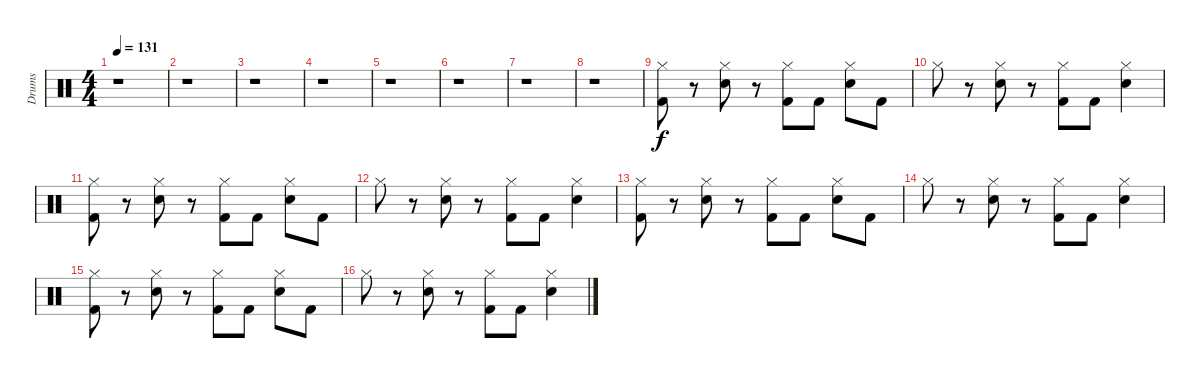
\track ("Drums" "Drums") {instrument percussion}
\staff {score}
\articulation defaults
\ts (4 4)
\tempo 131
\clef neutral
\ks c
r.1{dy f} |
r.1 |
r.1 |
r.1 |
r.1 |
r.1 |
r.1 |
r.1 |
("Hi-Hat (closed)" "Kick (hit) 2").8 r.8 ("Hi-Hat (closed)" "Snare (hit) 2").8 r.8 ("Hi-Hat (closed)" "Kick (hit) 2").8 "Kick (hit) 2".8 ("Hi-Hat (closed)" "Snare (hit) 2").8 "Kick (hit) 2".8 |
"Hi-Hat (closed)".8 r.8 ("Hi-Hat (closed)" "Snare (hit) 2").8 r.8 ("Hi-Hat (closed)" "Kick (hit) 2").8 "Kick (hit) 2".8 ("Hi-Hat (closed)" "Snare (hit) 2").4 |
("Hi-Hat (closed)" "Kick (hit) 2").8 r.8 ("Hi-Hat (closed)" "Snare (hit) 2").8 r.8 ("Hi-Hat (closed)" "Kick (hit) 2").8 "Kick (hit) 2".8 ("Hi-Hat (closed)" "Snare (hit) 2").8 "Kick (hit) 2".8 |
"Hi-Hat (closed)".8 r.8 ("Hi-Hat (closed)" "Snare (hit) 2").8 r.8 ("Hi-Hat (closed)" "Kick (hit) 2").8 "Kick (hit) 2".8 ("Hi-Hat (closed)" "Snare (hit) 2").4 |
("Hi-Hat (closed)" "Kick (hit) 2").8 r.8 ("Hi-Hat (closed)" "Snare (hit) 2").8 r.8 ("Hi-Hat (closed)" "Kick (hit) 2").8 "Kick (hit) 2".8 ("Hi-Hat (closed)" "Snare (hit) 2").8 "Kick (hit) 2".8 |
"Hi-Hat (closed)".8 r.8 ("Hi-Hat (closed)" "Snare (hit) 2").8 r.8 ("Hi-Hat (closed)" "Kick (hit) 2").8 "Kick (hit) 2".8 ("Hi-Hat (closed)" "Snare (hit) 2").4 |
("Hi-Hat (closed)" "Kick (hit) 2").8 r.8 ("Hi-Hat (closed)" "Snare (hit) 2").8 r.8 ("Hi-Hat (closed)" "Kick (hit) 2").8 "Kick (hit) 2".8 ("Hi-Hat (closed)" "Snare (hit) 2").8 "Kick (hit) 2".8 |
"Hi-Hat (closed)".8 r.8 ("Hi-Hat (closed)" "Snare (hit) 2").8 r.8 ("Hi-Hat (closed)" "Kick (hit) 2").8 "Kick (hit) 2".8 ("Hi-Hat (closed)" "Snare (hit) 2").4
